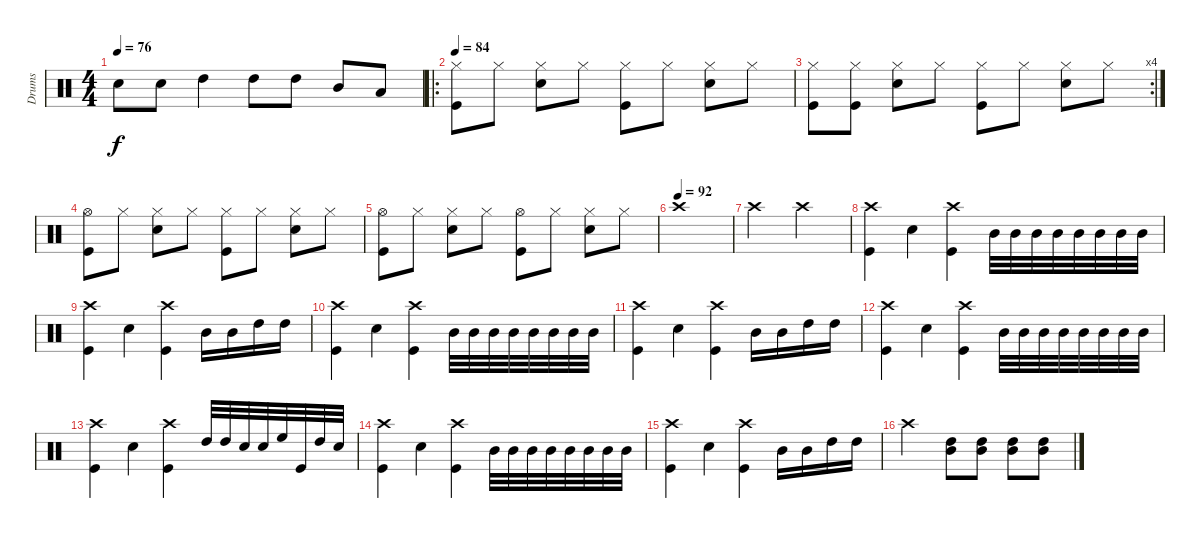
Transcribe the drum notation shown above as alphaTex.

\track ("Drums" "Drums") {instrument percussion}
\staff {score}
\articulation defaults
\ts (4 4)
\tempo 76
\clef neutral
\ks c "Electric Snare (hit)".8{dy f} "Electric Snare (hit)".8 "High Tom (hit)".4 "High Tom (hit)".8 "High Tom (hit)".8 "Mid Tom (hit)".8 "Low Tom (hit)".8
|
\ro
\tempo 84
("Hi-Hat (closed)" "Kick (hit)").8 "Hi-Hat (closed)".8 ("Hi-Hat (closed)" "Electric Snare (hit)").8 "Hi-Hat (closed)".8 ("Hi-Hat (closed)" "Kick (hit)").8 "Hi-Hat (closed)".8 ("Hi-Hat (closed)" "Electric Snare (hit)").8 "Hi-Hat (closed)".8 |
\rc 4
("Hi-Hat (closed)" "Kick (hit)").8 ("Hi-Hat (closed)" "Kick (hit)").8 ("Hi-Hat (closed)" "Electric Snare (hit)").8 "Hi-Hat (closed)".8 ("Hi-Hat (closed)" "Kick (hit)").8 "Hi-Hat (closed)".8 ("Hi-Hat (closed)" "Electric Snare (hit)").8 "Hi-Hat (closed)".8 |
("Hi-Hat (open)" "Kick (hit)").8 "Hi-Hat (closed)".8 ("Hi-Hat (closed)" "Electric Snare (hit)").8 "Hi-Hat (closed)".8 ("Hi-Hat (closed)" "Kick (hit)").8 "Hi-Hat (closed)".8 ("Hi-Hat (closed)" "Electric Snare (hit)").8 "Hi-Hat (closed)".8 |
("Hi-Hat (open)" "Kick (hit)").8 "Hi-Hat (closed)".8 ("Hi-Hat (closed)" "Electric Snare (hit)").8 "Hi-Hat (closed)".8 ("Hi-Hat (open)" "Kick (hit)").8 "Hi-Hat (closed)".8 ("Hi-Hat (closed)" "Electric Snare (hit)").8 "Hi-Hat (closed)".8 |
\tempo (92)
"Crash high (hit)".1 |
"Crash high (hit)".2 "Crash high (hit)".2 |
("Crash high (hit)" "Kick (hit)").4 "Electric Snare (hit)".4 ("Crash high (hit)" "Kick (hit)").4 "Mid Tom (hit)".32 "Mid Tom (hit)".32 "Mid Tom (hit)".32 "Mid Tom (hit)".32 "Mid Tom (hit)".32 "Mid Tom (hit)".32 "Mid Tom (hit)".32 "Mid Tom (hit)".32 |
("Crash high (hit)" "Kick (hit)").4 "Electric Snare (hit)".4 ("Crash high (hit)" "Kick (hit)").4 "Mid Tom (hit)".16 "Mid Tom (hit)".16 "High Tom (hit)".16 "High Tom (hit)".16 |
("Crash high (hit)" "Kick (hit)").4 "Electric Snare (hit)".4 ("Crash high (hit)" "Kick (hit)").4 "Mid Tom (hit)".32 "Mid Tom (hit)".32 "Mid Tom (hit)".32 "Mid Tom (hit)".32 "Mid Tom (hit)".32 "Mid Tom (hit)".32 "Mid Tom (hit)".32 "Mid Tom (hit)".32 |
("Crash high (hit)" "Kick (hit)").4 "Electric Snare (hit)".4 ("Crash high (hit)" "Kick (hit)").4 "Mid Tom (hit)".16 "Mid Tom (hit)".16 "High Tom (hit)".16 "High Tom (hit)".16 |
("Crash high (hit)" "Kick (hit)").4 "Electric Snare (hit)".4 ("Crash high (hit)" "Kick (hit)").4 "Mid Tom (hit)".32 "Mid Tom (hit)".32 "Mid Tom (hit)".32 "Mid Tom (hit)".32 "Mid Tom (hit)".32 "Mid Tom (hit)".32 "Mid Tom (hit)".32 "Mid Tom (hit)".32 |
("Crash high (hit)" "Kick (hit)").4 "Electric Snare (hit)".4 ("Crash high (hit)" "Kick (hit)").4 "High Tom (hit)".32 "High Tom (hit)".32 "Electric Snare (hit)".32 "Electric Snare (hit)".32 "High Floor Tom (hit)".32 "Kick (hit)".32 "High Tom (hit)".32 "Electric Snare (hit)".32 |
("Crash high (hit)" "Kick (hit)").4 "Electric Snare (hit)".4 ("Crash high (hit)" "Kick (hit)").4 "Mid Tom (hit)".32 "Mid Tom (hit)".32 "Mid Tom (hit)".32 "Mid Tom (hit)".32 "Mid Tom (hit)".32 "Mid Tom (hit)".32 "Mid Tom (hit)".32 "Mid Tom (hit)".32 |
("Crash high (hit)" "Kick (hit)").4 "Electric Snare (hit)".4 ("Crash high (hit)" "Kick (hit)").4 "Mid Tom (hit)".16 "Mid Tom (hit)".16 "High Tom (hit)".16 "High Tom (hit)".16 |
"Crash high (hit)".2 ("Mid Tom (hit)" "High Tom (hit)").8 ("Mid Tom (hit)" "High Tom (hit)").8 ("Mid Tom (hit)" "High Tom (hit)").8 ("Mid Tom (hit)" "High Tom (hit)").8
